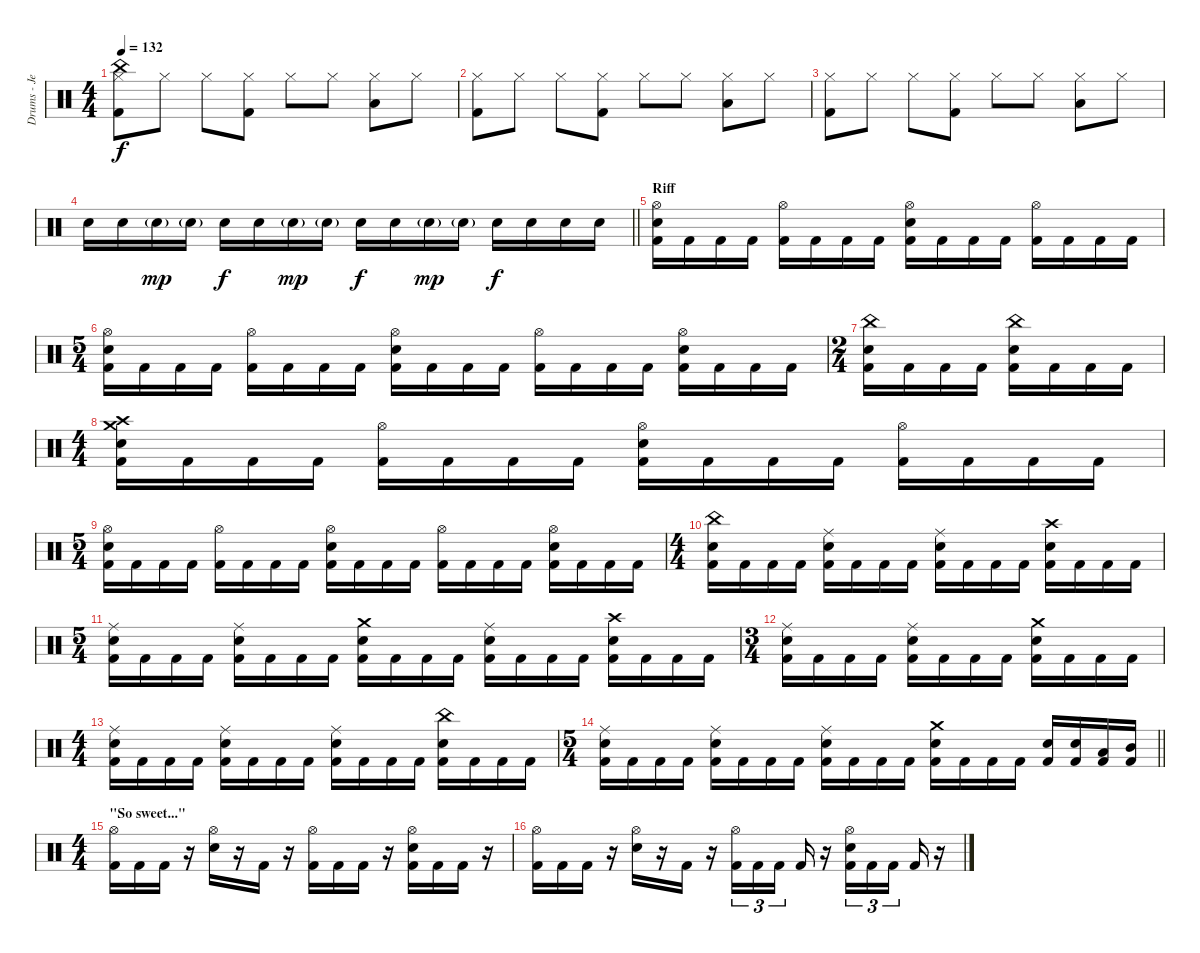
\track ("Drums - Jeroen" "Drums - Je") {instrument percussion}
\staff {score}
\articulation defaults
\ts (4 4)
\tempo 132
\clef neutral
\ks c
("China (hit)" "Hi-Hat (closed)" "Kick (hit) 2").8{dy f} "Hi-Hat (closed)".8 "Hi-Hat (closed)".8 ("Hi-Hat (closed)" "Kick (hit) 2").8 "Hi-Hat (closed)".8 "Hi-Hat (closed)".8 ("Low Floor Tom (hit)" "Hi-Hat (closed)").8 "Hi-Hat (closed)".8 |
("Hi-Hat (closed)" "Kick (hit) 2").8 "Hi-Hat (closed)".8 "Hi-Hat (closed)".8 ("Hi-Hat (closed)" "Kick (hit) 2").8 "Hi-Hat (closed)".8 "Hi-Hat (closed)".8 ("Low Floor Tom (hit)" "Hi-Hat (closed)").8 "Hi-Hat (closed)".8 |
("Hi-Hat (closed)" "Kick (hit) 2").8 "Hi-Hat (closed)".8 "Hi-Hat (closed)".8 ("Hi-Hat (closed)" "Kick (hit) 2").8 "Hi-Hat (closed)".8 "Hi-Hat (closed)".8 ("Low Floor Tom (hit)" "Hi-Hat (closed)").8 "Hi-Hat (closed)".8 |
\barLineRight lightlight "Electric Snare (hit)".16 "Electric Snare (hit)".16 "Electric Snare (hit)"{g}.16{dy mp} "Electric Snare (hit)"{g}.16 "Electric Snare (hit)".16{dy f} "Electric Snare (hit)".16 "Electric Snare (hit)"{g}.16{dy mp} "Electric Snare (hit)"{g}.16 "Electric Snare (hit)".16{dy f} "Electric Snare (hit)".16 "Electric Snare (hit)"{g}.16{dy mp} "Electric Snare (hit)"{g}.16 "Electric Snare (hit)".16{dy f} "Electric Snare (hit)".16 "Electric Snare (hit)".16 "Electric Snare (hit)".16
|
\section ("" "Riff")
("Hi-Hat (open)" "Electric Snare (hit)" "Kick (hit) 2").16 "Kick (hit) 2".16 "Kick (hit) 2".16 "Kick (hit) 2".16 ("Hi-Hat (open)" "Kick (hit) 2").16 "Kick (hit) 2".16 "Kick (hit) 2".16 "Kick (hit) 2".16 ("Hi-Hat (open)" "Electric Snare (hit)" "Kick (hit) 2").16 "Kick (hit) 2".16 "Kick (hit) 2".16 "Kick (hit) 2".16 ("Hi-Hat (open)" "Kick (hit) 2").16 "Kick (hit) 2".16 "Kick (hit) 2".16 "Kick (hit) 2".16 |
\ts (5 4)
("Hi-Hat (open)" "Electric Snare (hit)" "Kick (hit) 2").16 "Kick (hit) 2".16 "Kick (hit) 2".16 "Kick (hit) 2".16 ("Hi-Hat (open)" "Kick (hit) 2").16 "Kick (hit) 2".16 "Kick (hit) 2".16 "Kick (hit) 2".16 ("Hi-Hat (open)" "Electric Snare (hit)" "Kick (hit) 2").16 "Kick (hit) 2".16 "Kick (hit) 2".16 "Kick (hit) 2".16 ("Hi-Hat (open)" "Kick (hit) 2").16 "Kick (hit) 2".16 "Kick (hit) 2".16 "Kick (hit) 2".16 ("Hi-Hat (open)" "Electric Snare (hit)" "Kick (hit) 2").16 "Kick (hit) 2".16 "Kick (hit) 2".16 "Kick (hit) 2".16 |
\ts (2 4)
("China (hit)" "Electric Snare (hit)" "Kick (hit) 2").16 "Kick (hit) 2".16 "Kick (hit) 2".16 "Kick (hit) 2".16 ("China (hit)" "Electric Snare (hit)" "Kick (hit) 2").16 "Kick (hit) 2".16 "Kick (hit) 2".16 "Kick (hit) 2".16 |
\ts (4 4)
("Crash high (hit)" "Crash medium (hit)" "Electric Snare (hit)" "Kick (hit) 2").16 "Kick (hit) 2".16 "Kick (hit) 2".16 "Kick (hit) 2".16 ("Hi-Hat (open)" "Kick (hit) 2").16 "Kick (hit) 2".16 "Kick (hit) 2".16 "Kick (hit) 2".16 ("Hi-Hat (open)" "Electric Snare (hit)" "Kick (hit) 2").16 "Kick (hit) 2".16 "Kick (hit) 2".16 "Kick (hit) 2".16 ("Hi-Hat (open)" "Kick (hit) 2").16 "Kick (hit) 2".16 "Kick (hit) 2".16 "Kick (hit) 2".16 |
\ts (5 4)
("Hi-Hat (open)" "Electric Snare (hit)" "Kick (hit) 2").16 "Kick (hit) 2".16 "Kick (hit) 2".16 "Kick (hit) 2".16 ("Hi-Hat (open)" "Kick (hit) 2").16 "Kick (hit) 2".16 "Kick (hit) 2".16 "Kick (hit) 2".16 ("Hi-Hat (open)" "Electric Snare (hit)" "Kick (hit) 2").16 "Kick (hit) 2".16 "Kick (hit) 2".16 "Kick (hit) 2".16 ("Hi-Hat (open)" "Kick (hit) 2").16 "Kick (hit) 2".16 "Kick (hit) 2".16 "Kick (hit) 2".16 ("Hi-Hat (open)" "Electric Snare (hit)" "Kick (hit) 2").16 "Kick (hit) 2".16 "Kick (hit) 2".16 "Kick (hit) 2".16 |
\ts (4 4)
("China (hit)" "Electric Snare (hit)" "Kick (hit) 2").16 "Kick (hit) 2".16 "Kick (hit) 2".16 "Kick (hit) 2".16 ("Ride (middle)" "Electric Snare (hit)" "Kick (hit) 2").16 "Kick (hit) 2".16 "Kick (hit) 2".16 "Kick (hit) 2".16 ("Ride (middle)" "Electric Snare (hit)" "Kick (hit) 2").16 "Kick (hit) 2".16 "Kick (hit) 2".16 "Kick (hit) 2".16 ("Crash high (hit)" "Electric Snare (hit)" "Kick (hit) 2").16 "Kick (hit) 2".16 "Kick (hit) 2".16 "Kick (hit) 2".16 |
\ts (5 4)
("Ride (middle)" "Electric Snare (hit)" "Kick (hit) 2").16 "Kick (hit) 2".16 "Kick (hit) 2".16 "Kick (hit) 2".16 ("Ride (middle)" "Electric Snare (hit)" "Kick (hit) 2").16 "Kick (hit) 2".16 "Kick (hit) 2".16 "Kick (hit) 2".16 ("Crash medium (hit)" "Electric Snare (hit)" "Kick (hit) 2").16 "Kick (hit) 2".16 "Kick (hit) 2".16 "Kick (hit) 2".16 ("Ride (middle)" "Electric Snare (hit)" "Kick (hit) 2").16 "Kick (hit) 2".16 "Kick (hit) 2".16 "Kick (hit) 2".16 ("Crash high (hit)" "Electric Snare (hit)" "Kick (hit) 2").16 "Kick (hit) 2".16 "Kick (hit) 2".16 "Kick (hit) 2".16 |
\ts (3 4)
("Ride (middle)" "Electric Snare (hit)" "Kick (hit) 2").16 "Kick (hit) 2".16 "Kick (hit) 2".16 "Kick (hit) 2".16 ("Ride (middle)" "Electric Snare (hit)" "Kick (hit) 2").16 "Kick (hit) 2".16 "Kick (hit) 2".16 "Kick (hit) 2".16 ("Crash medium (hit)" "Electric Snare (hit)" "Kick (hit) 2").16 "Kick (hit) 2".16 "Kick (hit) 2".16 "Kick (hit) 2".16 |
\ts (4 4)
("Ride (middle)" "Electric Snare (hit)" "Kick (hit) 2").16 "Kick (hit) 2".16 "Kick (hit) 2".16 "Kick (hit) 2".16 ("Ride (middle)" "Electric Snare (hit)" "Kick (hit) 2").16 "Kick (hit) 2".16 "Kick (hit) 2".16 "Kick (hit) 2".16 ("Ride (middle)" "Electric Snare (hit)" "Kick (hit) 2").16 "Kick (hit) 2".16 "Kick (hit) 2".16 "Kick (hit) 2".16 ("China (hit)" "Electric Snare (hit)" "Kick (hit) 2").16 "Kick (hit) 2".16 "Kick (hit) 2".16 "Kick (hit) 2".16 |
\ts (5 4)
\barLineRight lightlight
("Ride (middle)" "Electric Snare (hit)" "Kick (hit) 2").16 "Kick (hit) 2".16 "Kick (hit) 2".16 "Kick (hit) 2".16 ("Ride (middle)" "Electric Snare (hit)" "Kick (hit) 2").16 "Kick (hit) 2".16 "Kick (hit) 2".16 "Kick (hit) 2".16 ("Ride (middle)" "Electric Snare (hit)" "Kick (hit) 2").16 "Kick (hit) 2".16 "Kick (hit) 2".16 "Kick (hit) 2".16 ("Crash medium (hit)" "Electric Snare (hit)" "Kick (hit) 2").16 "Kick (hit) 2".16 "Kick (hit) 2".16 "Kick (hit) 2".16 ("Electric Snare (hit)" "Kick (hit) 2").16 ("Electric Snare (hit)" "Kick (hit) 2").16 ("Low Tom (hit)" "Kick (hit) 2").16 ("Mid Tom (hit)" "Kick (hit) 2").16 |
\ts (4 4)
\section ("" "\"So sweet...\"")
("Hi-Hat (open)" "Kick (hit) 2").16 "Kick (hit) 2".16 "Kick (hit) 2".16 r.16 ("Hi-Hat (open)" "Electric Snare (hit)").16 r.16 "Kick (hit) 2".16 r.16 ("Hi-Hat (open)" "Kick (hit) 2").16 "Kick (hit) 2".16 "Kick (hit) 2".16 r.16 ("Hi-Hat (open)" "Electric Snare (hit)" "Kick (hit) 2").16 "Kick (hit) 2".16 "Kick (hit) 2".16 r.16 |
("Hi-Hat (open)" "Kick (hit) 2").16 "Kick (hit) 2".16 "Kick (hit) 2".16 r.16 ("Hi-Hat (open)" "Electric Snare (hit)").16 r.16 "Kick (hit) 2".16 r.16 ("Hi-Hat (open)" "Kick (hit) 2").16{tu (3 2)} "Kick (hit) 2".16{tu (3 2)} "Kick (hit) 2".16{tu (3 2) beam splitsecondary} "Kick (hit) 2".16 r.16 ("Hi-Hat (open)" "Electric Snare (hit)" "Kick (hit) 2").16{tu (3 2)} "Kick (hit) 2".16{tu (3 2)} "Kick (hit) 2".16{tu (3 2) beam splitsecondary} "Kick (hit) 2".16 r.16
